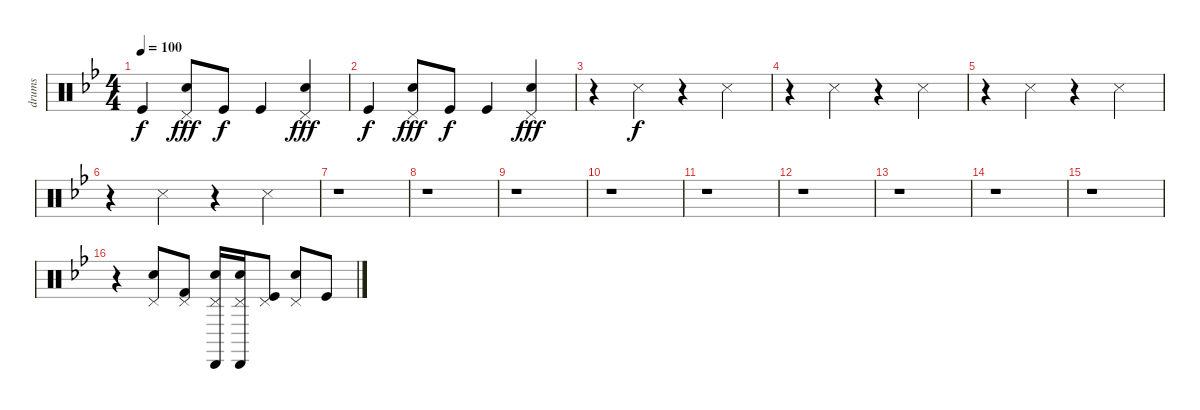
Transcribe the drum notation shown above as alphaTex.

\track ("drums" "drums") {instrument percussion}
\staff {score}
\articulation defaults
\ts (4 4)
\tempo 100
\clef neutral
\ks gminor "Kick (hit)".4{dy f}
("Pedal Hi-Hat (hit)" "Electric Snare (hit)").8{dy fff} "Kick (hit)".8{dy f} "Kick (hit)".4 ("Pedal Hi-Hat (hit)" "Electric Snare (hit)").4{dy fff} |
"Kick (hit)".4{dy f} ("Pedal Hi-Hat (hit)" "Electric Snare (hit)").8{dy fff} "Kick (hit)".8{dy f} "Kick (hit)".4 ("Pedal Hi-Hat (hit)" "Electric Snare (hit)").4{dy fff} |
r.4 "Snare (side stick) 3".4{dy f} r.4 "Snare (side stick) 3".4 |
r.4 "Snare (side stick) 3".4 r.4 "Snare (side stick) 3".4 |
r.4 "Snare (side stick) 3".4 r.4 "Snare (side stick) 3".4 |
r.4 "Snare (side stick) 3".4 r.4 "Snare (side stick) 3".4 |
r.1 |
r.1 |
r.1 |
r.1 |
r.1 |
r.1 |
r.1 |
r.1 |
r.1 |
r.4 ("Pedal Hi-Hat (hit)" "Electric Snare (hit)").8 ("Pedal Hi-Hat (hit)" "Kick (hit) 2").8 ("Pedal Hi-Hat (hit)" "Snare (hit) 2" "Cabasa (hit)").16 ("Pedal Hi-Hat (hit)" "Snare (hit) 2" "Cabasa (hit)").16 ("Pedal Hi-Hat (hit)" "Kick (hit)").8 ("Pedal Hi-Hat (hit)" "Electric Snare (hit)").8 "Kick (hit)".8
